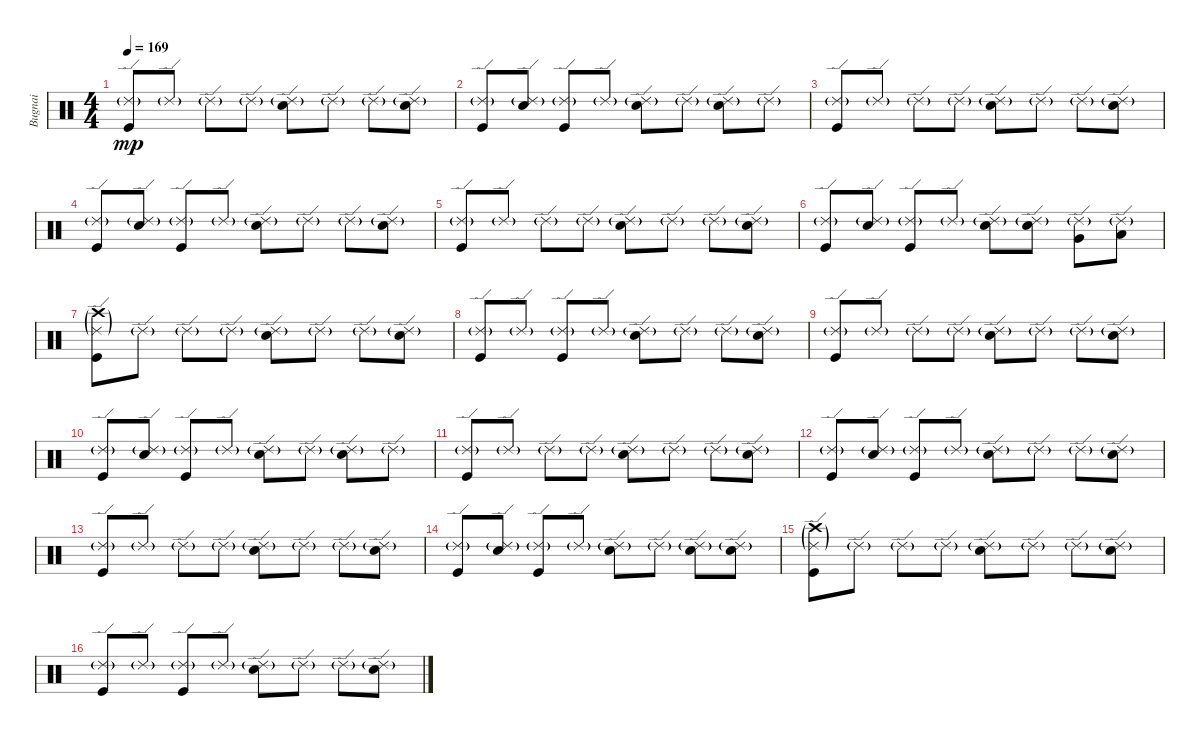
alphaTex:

\track ("Bugnai" "Bugnai") {instrument percussion}
\staff {score}
\articulation defaults
\ts (4 4)
\tempo 169
\clef neutral
\ks c
("Ride (edge) 2"{g} "Kick (hit)").8{dy mp} "Ride (edge) 2"{g}.8 "Ride (edge) 2"{g}.8 "Ride (edge) 2"{g}.8 ("Ride (edge) 2"{g} "Snare (hit) 2").8 "Ride (edge) 2"{g}.8 "Ride (edge) 2"{g}.8 ("Ride (edge) 2"{g} "Snare (hit) 2").8 |
("Ride (edge) 2"{g} "Kick (hit)").8 ("Ride (edge) 2"{g} "Snare (hit) 2").8 ("Ride (edge) 2"{g} "Kick (hit)").8 "Ride (edge) 2"{g}.8 ("Ride (edge) 2"{g} "Snare (hit) 2").8 "Ride (edge) 2"{g}.8 ("Ride (edge) 2"{g} "Snare (hit) 2").8 "Ride (edge) 2"{g}.8 |
("Ride (edge) 2"{g} "Kick (hit)").8 "Ride (edge) 2"{g}.8 "Ride (edge) 2"{g}.8 "Ride (edge) 2"{g}.8 ("Ride (edge) 2"{g} "Snare (hit) 2").8 "Ride (edge) 2"{g}.8 "Ride (edge) 2"{g}.8 ("Ride (edge) 2"{g} "Snare (hit) 2").8 |
("Ride (edge) 2"{g} "Kick (hit)").8 ("Ride (edge) 2"{g} "Snare (hit) 2").8 ("Ride (edge) 2"{g} "Kick (hit)").8 "Ride (edge) 2"{g}.8 ("Ride (edge) 2"{g} "Snare (hit) 2").8 "Ride (edge) 2"{g}.8 "Ride (edge) 2"{g}.8 ("Ride (edge) 2"{g} "Snare (hit) 2").8 |
("Ride (edge) 2"{g} "Kick (hit)").8 "Ride (edge) 2"{g}.8 "Ride (edge) 2"{g}.8 "Ride (edge) 2"{g}.8 ("Ride (edge) 2"{g} "Snare (hit) 2").8 "Ride (edge) 2"{g}.8 "Ride (edge) 2"{g}.8 ("Ride (edge) 2"{g} "Snare (hit) 2").8 |
("Ride (edge) 2"{g} "Kick (hit)").8 ("Ride (edge) 2"{g} "Snare (hit) 2").8 ("Ride (edge) 2"{g} "Kick (hit)").8 "Ride (edge) 2"{g}.8 ("Ride (edge) 2"{g} "Snare (hit) 2").8 ("Ride (edge) 2"{g} "Snare (hit) 2").8 ("Ride (edge) 2"{g} "Very Low Tom (hit)").8 ("Ride (edge) 2"{g} "Low Floor Tom (hit)").8 |
("Ride (edge) 2"{g} "Crash high (hit)"{g} "Kick (hit)").8 "Ride (edge) 2"{g}.8 "Ride (edge) 2"{g}.8 "Ride (edge) 2"{g}.8 ("Ride (edge) 2"{g} "Snare (hit) 2").8 "Ride (edge) 2"{g}.8 "Ride (edge) 2"{g}.8 ("Ride (edge) 2"{g} "Snare (hit) 2").8 |
("Ride (edge) 2"{g} "Kick (hit)").8 "Ride (edge) 2"{g}.8 ("Ride (edge) 2"{g} "Kick (hit)").8 "Ride (edge) 2"{g}.8 ("Ride (edge) 2"{g} "Snare (hit) 2").8 "Ride (edge) 2"{g}.8 "Ride (edge) 2"{g}.8 ("Ride (edge) 2"{g} "Snare (hit) 2").8 |
("Ride (edge) 2"{g} "Kick (hit)").8 "Ride (edge) 2"{g}.8 "Ride (edge) 2"{g}.8 "Ride (edge) 2"{g}.8 ("Ride (edge) 2"{g} "Snare (hit) 2").8 "Ride (edge) 2"{g}.8 "Ride (edge) 2"{g}.8 ("Ride (edge) 2"{g} "Snare (hit) 2").8 |
("Ride (edge) 2"{g} "Kick (hit)").8 ("Ride (edge) 2"{g} "Snare (hit) 2").8 ("Ride (edge) 2"{g} "Kick (hit)").8 "Ride (edge) 2"{g}.8 ("Ride (edge) 2"{g} "Snare (hit) 2").8 "Ride (edge) 2"{g}.8 ("Ride (edge) 2"{g} "Snare (hit) 2").8 "Ride (edge) 2"{g}.8 |
("Ride (edge) 2"{g} "Kick (hit)").8 "Ride (edge) 2"{g}.8 "Ride (edge) 2"{g}.8 "Ride (edge) 2"{g}.8 ("Ride (edge) 2"{g} "Snare (hit) 2").8 "Ride (edge) 2"{g}.8 "Ride (edge) 2"{g}.8 ("Ride (edge) 2"{g} "Snare (hit) 2").8 |
("Ride (edge) 2"{g} "Kick (hit)").8 ("Ride (edge) 2"{g} "Snare (hit) 2").8 ("Ride (edge) 2"{g} "Kick (hit)").8 "Ride (edge) 2"{g}.8 ("Ride (edge) 2"{g} "Snare (hit) 2").8 "Ride (edge) 2"{g}.8 "Ride (edge) 2"{g}.8 ("Ride (edge) 2"{g} "Snare (hit) 2").8 |
("Ride (edge) 2"{g} "Kick (hit)").8 "Ride (edge) 2"{g}.8 "Ride (edge) 2"{g}.8 "Ride (edge) 2"{g}.8 ("Ride (edge) 2"{g} "Snare (hit) 2").8 "Ride (edge) 2"{g}.8 "Ride (edge) 2"{g}.8 ("Ride (edge) 2"{g} "Snare (hit) 2").8 |
("Ride (edge) 2"{g} "Kick (hit)").8 ("Ride (edge) 2"{g} "Snare (hit) 2").8 ("Ride (edge) 2"{g} "Kick (hit)").8 "Ride (edge) 2"{g}.8 ("Ride (edge) 2"{g} "Snare (hit) 2").8 "Ride (edge) 2"{g}.8 ("Ride (edge) 2"{g} "Snare (hit) 2").8 ("Ride (edge) 2"{g} "Snare (hit) 2").8 |
("Ride (edge) 2"{g} "Crash high (hit)"{g} "Kick (hit)").8 "Ride (edge) 2"{g}.8 "Ride (edge) 2"{g}.8 "Ride (edge) 2"{g}.8 ("Ride (edge) 2"{g} "Snare (hit) 2").8 "Ride (edge) 2"{g}.8 "Ride (edge) 2"{g}.8 ("Ride (edge) 2"{g} "Snare (hit) 2").8 |
("Ride (edge) 2"{g} "Kick (hit)").8 "Ride (edge) 2"{g}.8 ("Ride (edge) 2"{g} "Kick (hit)").8 "Ride (edge) 2"{g}.8 ("Ride (edge) 2"{g} "Snare (hit) 2").8 "Ride (edge) 2"{g}.8 "Ride (edge) 2"{g}.8 ("Ride (edge) 2"{g} "Snare (hit) 2").8
